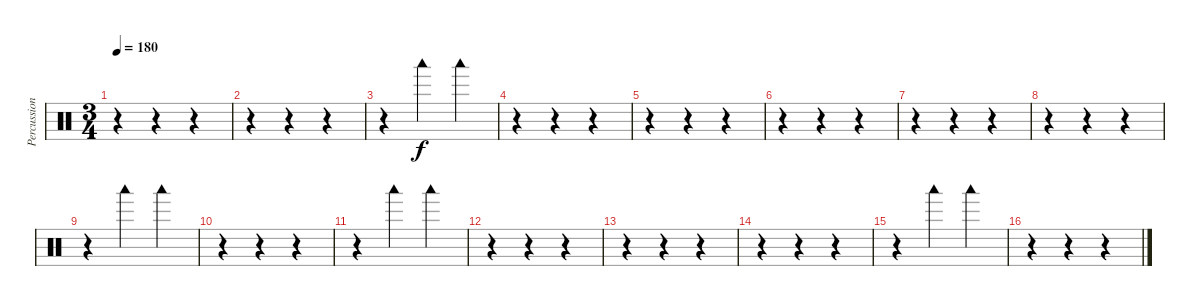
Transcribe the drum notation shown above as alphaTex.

\track ("Percussions" "Percussion") {instrument percussion}
\staff {score}
\articulation defaults
\ts (3 4)
\tempo 180
\clef neutral
\ks c
r.4{dy f} r.4 r.4 |
r.4 r.4 r.4 |
r.4 "Woodblock low (hit)".4 "Woodblock low (hit)".4 |
r.4 r.4 r.4 |
r.4 r.4 r.4 |
r.4 r.4 r.4 |
r.4 r.4 r.4 |
r.4 r.4 r.4 |
r.4 "Woodblock low (hit)".4 "Woodblock low (hit)".4 |
r.4 r.4 r.4 |
r.4 "Woodblock low (hit)".4 "Woodblock low (hit)".4 |
r.4 r.4 r.4 |
r.4 r.4 r.4 |
r.4 r.4 r.4 |
r.4 "Woodblock low (hit)".4 "Woodblock low (hit)".4 |
r.4 r.4 r.4
